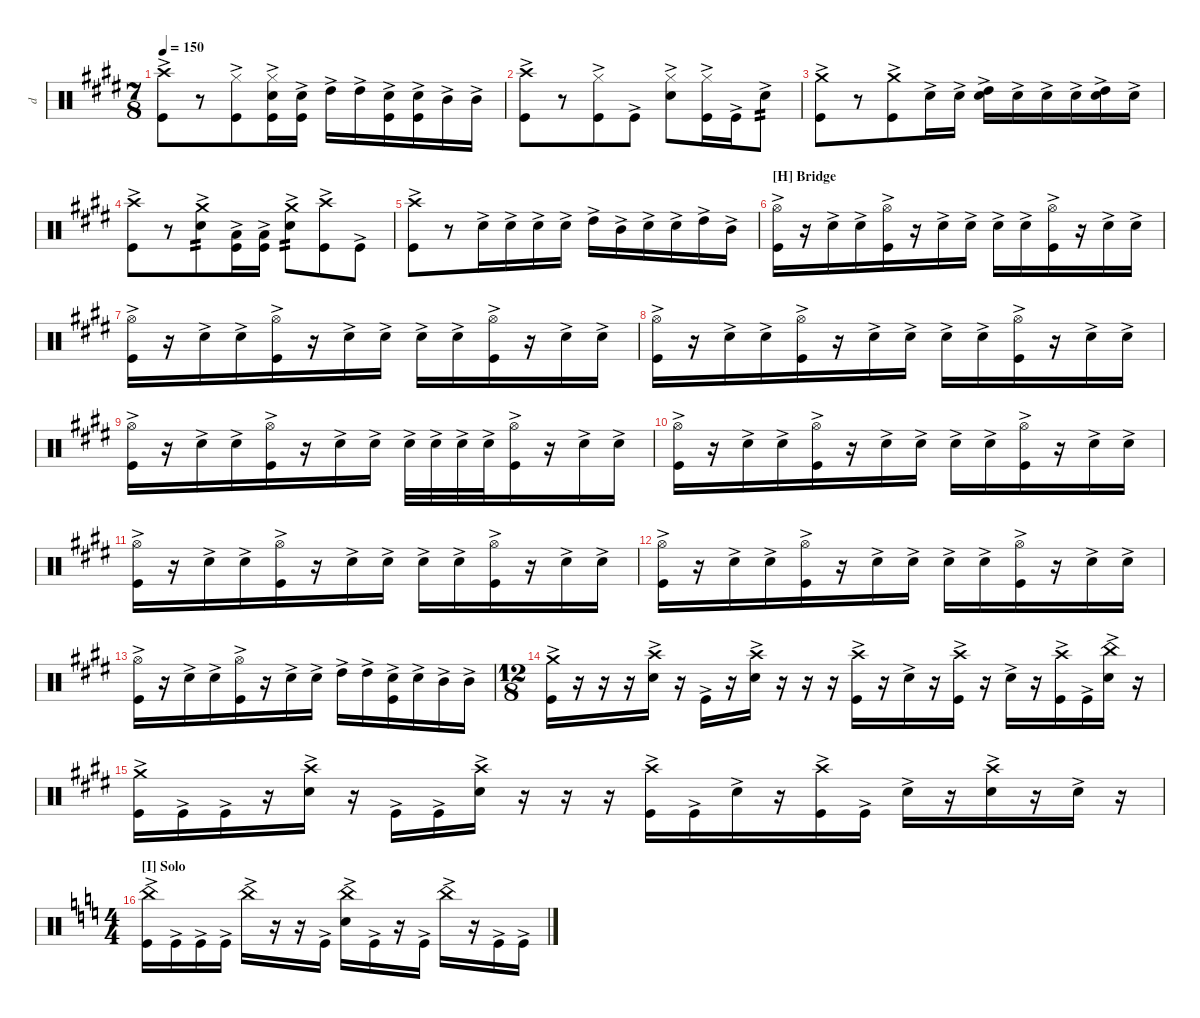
\defaultSystemsLayout 4
\hideDynamics
\bracketExtendMode nobrackets
\otherSystemsTrackNameOrientation horizontal
\track ("Drumkit" "d") {instrument percussion}
\staff {score}
\articulation defaults
\ts (7 8)
\tempo 150
\clef neutral
\ks c#minor
("Crash high (hit)"{ac acc forcenatural} "Kick (hit)"{ac acc forcenatural}).8{dy mf beam Down} r.8{beam Down} ("Hi-Hat (closed)"{ac acc forcenatural} "Kick (hit)"{ac acc forcenatural}).8{beam Down} ("Hi-Hat (closed)"{ac acc forcenatural} "Snare (hit) 2"{ac acc forcenatural} "Kick (hit)"{ac acc forcenatural}).16{beam Down} ("Snare (hit) 2"{ac acc forcenatural} "Kick (hit)"{ac acc forcenatural}).16{beam Down} "High Tom (hit)"{ac acc forcenatural}.16{beam Down} "High Tom (hit)"{ac acc forcenatural}.16{beam Down} ("Snare (hit) 2"{ac acc forcenatural} "Kick (hit)"{ac acc forcenatural}).16{beam Up} ("Snare (hit) 2"{ac acc forcenatural} "Kick (hit)"{ac acc forcenatural}).16{beam Up} "Mid Tom (hit)"{ac acc forcenatural}.16{beam Up} "Mid Tom (hit)"{ac acc forcenatural}.16{beam Up} |
("Crash high (hit)"{ac acc forcenatural} "Kick (hit)"{ac acc forcenatural}).8{beam Down} r.8{beam Down} ("Hi-Hat (closed)"{ac acc forcenatural} "Kick (hit)"{ac acc forcenatural}).8{beam Down} "Kick (hit)"{ac acc forcenatural}.8{beam Down} ("Hi-Hat (closed)"{ac acc forcenatural} "Snare (hit) 2"{ac acc forcenatural}).8{beam Down} ("Hi-Hat (closed)"{ac acc forcenatural} "Kick (hit)"{ac acc forcenatural}).16{beam Down} "Kick (hit)"{ac acc forcenatural}.16{beam Down} "Snare (hit) 2"{ac acc forcenatural}.8{tp 2 beam Down} |
("Crash medium (hit)"{ac acc forcenatural} "Kick (hit)"{ac acc forcenatural}).8{beam Down} r.8{beam Down} ("Crash medium (hit)"{ac acc forcenatural} "Kick (hit)"{ac acc forcenatural}).8{beam Down} "Snare (hit) 2"{ac acc forcenatural}.16{beam Down} "Snare (hit) 2"{ac acc forcenatural}.16{beam Down} ("High Tom (hit)"{ac acc forcenatural} "Snare (hit) 2"{ac acc forcenatural}).16{beam Down} "Snare (hit) 2"{ac acc forcenatural}.16{beam Down} "Snare (hit) 2"{ac acc forcenatural}.16{beam Down} "Snare (hit) 2"{ac acc forcenatural}.16{beam Down} ("High Tom (hit)"{ac acc forcenatural} "Snare (hit) 2"{ac acc forcenatural}).16{beam Down} "Snare (hit) 2"{ac acc forcenatural}.16{beam Down} |
("Crash high (hit)"{ac acc forcenatural} "Kick (hit)"{ac acc forcenatural}).8{beam Down} r.8{beam Down} ("Crash medium (hit)"{ac acc forcenatural} "Snare (hit) 2"{ac acc forcenatural}).8{tp 2 beam Down} ("Low Floor Tom (hit)"{ac acc forcenatural} "Kick (hit)"{ac acc forcenatural}).16{beam Down} ("Low Floor Tom (hit)"{ac acc forcenatural} "Kick (hit)"{ac acc forcenatural}).16{beam Down} ("Crash medium (hit)"{ac acc forcenatural} "Snare (hit) 2"{ac acc forcenatural}).8{tp 2 beam Down} ("Crash high (hit)"{ac acc forcenatural} "Kick (hit)"{ac acc forcenatural}).8{beam Down} "Kick (hit)"{ac acc forcenatural}.8{beam Down} |
("Crash high (hit)"{ac acc forcenatural} "Kick (hit)"{ac acc forcenatural}).8{beam Down} r.8{beam Down} "Snare (hit) 2"{ac acc forcenatural}.16{beam Down} "Snare (hit) 2"{ac acc forcenatural}.16{beam Down} "Snare (hit) 2"{ac acc forcenatural}.16{beam Down} "Snare (hit) 2"{ac acc forcenatural}.16{beam Down} "High Tom (hit)"{ac acc forcenatural}.16{beam Down} "Mid Tom (hit)"{ac acc forcenatural}.16{beam Down} "Snare (hit) 2"{ac acc forcenatural}.16{beam Down} "Snare (hit) 2"{ac acc forcenatural}.16{beam Down} "High Tom (hit)"{ac acc forcenatural}.16{beam Down} "Mid Tom (hit)"{ac acc forcenatural}.16{beam Down} |
\section ("H" "Bridge")
("Hi-Hat (open)"{ac acc forcenatural} "Kick (hit)"{ac acc forcenatural}).16{beam Down} r.16{beam Down} "Snare (hit) 2"{ac acc forcenatural}.16{beam Down} "Snare (hit) 2"{ac acc forcenatural}.16{beam Down} ("Hi-Hat (open)"{ac acc forcenatural} "Kick (hit)"{ac acc forcenatural}).16{beam Down} r.16{beam Down} "Snare (hit) 2"{ac acc forcenatural}.16{beam Down} "Snare (hit) 2"{ac acc forcenatural}.16{beam Down} "Snare (hit) 2"{ac acc forcenatural}.16{beam Down} "Snare (hit) 2"{ac acc forcenatural}.16{beam Down} ("Hi-Hat (open)"{ac acc forcenatural} "Kick (hit)"{ac acc forcenatural}).16{beam Down} r.16{beam Down} "Snare (hit) 2"{ac acc forcenatural}.16{beam Down} "Snare (hit) 2"{ac acc forcenatural}.16{beam Down} |
("Hi-Hat (open)"{ac acc forcenatural} "Kick (hit)"{ac acc forcenatural}).16{beam Down} r.16{beam Down} "Snare (hit) 2"{ac acc forcenatural}.16{beam Down} "Snare (hit) 2"{ac acc forcenatural}.16{beam Down} ("Hi-Hat (open)"{ac acc forcenatural} "Kick (hit)"{ac acc forcenatural}).16{beam Down} r.16{beam Down} "Snare (hit) 2"{ac acc forcenatural}.16{beam Down} "Snare (hit) 2"{ac acc forcenatural}.16{beam Down} "Snare (hit) 2"{ac acc forcenatural}.16{beam Down} "Snare (hit) 2"{ac acc forcenatural}.16{beam Down} ("Hi-Hat (open)"{ac acc forcenatural} "Kick (hit)"{ac acc forcenatural}).16{beam Down} r.16{beam Down} "Snare (hit) 2"{ac acc forcenatural}.16{beam Down} "Snare (hit) 2"{ac acc forcenatural}.16{beam Down} |
("Hi-Hat (open)"{ac acc forcenatural} "Kick (hit)"{ac acc forcenatural}).16{beam Down} r.16{beam Down} "Snare (hit) 2"{ac acc forcenatural}.16{beam Down} "Snare (hit) 2"{ac acc forcenatural}.16{beam Down} ("Hi-Hat (open)"{ac acc forcenatural} "Kick (hit)"{ac acc forcenatural}).16{beam Down} r.16{beam Down} "Snare (hit) 2"{ac acc forcenatural}.16{beam Down} "Snare (hit) 2"{ac acc forcenatural}.16{beam Down} "Snare (hit) 2"{ac acc forcenatural}.16{beam Down} "Snare (hit) 2"{ac acc forcenatural}.16{beam Down} ("Hi-Hat (open)"{ac acc forcenatural} "Kick (hit)"{ac acc forcenatural}).16{beam Down} r.16{beam Down} "Snare (hit) 2"{ac acc forcenatural}.16{beam Down} "Snare (hit) 2"{ac acc forcenatural}.16{beam Down} |
("Hi-Hat (open)"{ac acc forcenatural} "Kick (hit)"{ac acc forcenatural}).16{beam Down} r.16{beam Down} "Snare (hit) 2"{ac acc forcenatural}.16{beam Down} "Snare (hit) 2"{ac acc forcenatural}.16{beam Down} ("Hi-Hat (open)"{ac acc forcenatural} "Kick (hit)"{ac acc forcenatural}).16{beam Down} r.16{beam Down} "Snare (hit) 2"{ac acc forcenatural}.16{beam Down} "Snare (hit) 2"{ac acc forcenatural}.16{beam Down} "Snare (hit) 2"{ac acc forcenatural}.32{beam Down} "Snare (hit) 2"{ac acc forcenatural}.32{beam Down} "Snare (hit) 2"{ac acc forcenatural}.32{beam Down} "Snare (hit) 2"{ac acc forcenatural}.32{beam Down} ("Hi-Hat (open)"{ac acc forcenatural} "Kick (hit)"{ac acc forcenatural}).16{beam Down} r.16{beam Down} "Snare (hit) 2"{ac acc forcenatural}.16{beam Down} "Snare (hit) 2"{ac acc forcenatural}.16{beam Down} |
("Hi-Hat (open)"{ac acc forcenatural} "Kick (hit)"{ac acc forcenatural}).16{beam Down} r.16{beam Down} "Snare (hit) 2"{ac acc forcenatural}.16{beam Down} "Snare (hit) 2"{ac acc forcenatural}.16{beam Down} ("Hi-Hat (open)"{ac acc forcenatural} "Kick (hit)"{ac acc forcenatural}).16{beam Down} r.16{beam Down} "Snare (hit) 2"{ac acc forcenatural}.16{beam Down} "Snare (hit) 2"{ac acc forcenatural}.16{beam Down} "Snare (hit) 2"{ac acc forcenatural}.16{beam Down} "Snare (hit) 2"{ac acc forcenatural}.16{beam Down} ("Hi-Hat (open)"{ac acc forcenatural} "Kick (hit)"{ac acc forcenatural}).16{beam Down} r.16{beam Down} "Snare (hit) 2"{ac acc forcenatural}.16{beam Down} "Snare (hit) 2"{ac acc forcenatural}.16{beam Down} |
("Hi-Hat (open)"{ac acc forcenatural} "Kick (hit)"{ac acc forcenatural}).16{beam Down} r.16{beam Down} "Snare (hit) 2"{ac acc forcenatural}.16{beam Down} "Snare (hit) 2"{ac acc forcenatural}.16{beam Down} ("Hi-Hat (open)"{ac acc forcenatural} "Kick (hit)"{ac acc forcenatural}).16{beam Down} r.16{beam Down} "Snare (hit) 2"{ac acc forcenatural}.16{beam Down} "Snare (hit) 2"{ac acc forcenatural}.16{beam Down} "Snare (hit) 2"{ac acc forcenatural}.16{beam Down} "Snare (hit) 2"{ac acc forcenatural}.16{beam Down} ("Hi-Hat (open)"{ac acc forcenatural} "Kick (hit)"{ac acc forcenatural}).16{beam Down} r.16{beam Down} "Snare (hit) 2"{ac acc forcenatural}.16{beam Down} "Snare (hit) 2"{ac acc forcenatural}.16{beam Down} |
("Hi-Hat (open)"{ac acc forcenatural} "Kick (hit)"{ac acc forcenatural}).16{beam Down} r.16{beam Down} "Snare (hit) 2"{ac acc forcenatural}.16{beam Down} "Snare (hit) 2"{ac acc forcenatural}.16{beam Down} ("Hi-Hat (open)"{ac acc forcenatural} "Kick (hit)"{ac acc forcenatural}).16{beam Down} r.16{beam Down} "Snare (hit) 2"{ac acc forcenatural}.16{beam Down} "Snare (hit) 2"{ac acc forcenatural}.16{beam Down} "Snare (hit) 2"{ac acc forcenatural}.16{beam Down} "Snare (hit) 2"{ac acc forcenatural}.16{beam Down} ("Hi-Hat (open)"{ac acc forcenatural} "Kick (hit)"{ac acc forcenatural}).16{beam Down} r.16{beam Down} "Snare (hit) 2"{ac acc forcenatural}.16{beam Down} "Snare (hit) 2"{ac acc forcenatural}.16{beam Down} |
("Hi-Hat (open)"{ac acc forcenatural} "Kick (hit)"{ac acc forcenatural}).16{beam Down} r.16{beam Down} "Snare (hit) 2"{ac acc forcenatural}.16{beam Down} "Snare (hit) 2"{ac acc forcenatural}.16{beam Down} ("Hi-Hat (open)"{ac acc forcenatural} "Kick (hit)"{ac acc forcenatural}).16{beam Down} r.16{beam Down} "Snare (hit) 2"{ac acc forcenatural}.16{beam Down} "Snare (hit) 2"{ac acc forcenatural}.16{beam Down} "High Tom (hit)"{ac acc forcenatural}.16{beam Down} "High Tom (hit)"{ac acc forcenatural}.16{beam Down} ("Snare (hit) 2"{ac acc forcenatural} "Kick (hit)"{ac acc forcenatural}).16{beam Up} "Snare (hit) 2"{ac acc forcenatural}.16{beam Up} "Mid Tom (hit)"{ac acc forcenatural}.16{beam Up} "Mid Tom (hit)"{ac acc forcenatural}.16{beam Up} |
\ts (12 8)
\beaming (8 3 3 3 3)
("Crash medium (hit)"{ac acc forcenatural} "Kick (hit)"{ac acc forcenatural}).16{beam Down} r.16{beam Down} r.16{beam Down} r.16{beam Down} ("Crash high (hit)"{ac acc forcenatural} "Snare (hit) 2"{ac acc forcenatural}).16{beam Down} r.16{beam Down} "Kick (hit)"{ac acc forcenatural}.16{beam Down} r.16{beam Down} ("Crash high (hit)"{ac acc forcenatural} "Snare (hit) 2"{ac acc forcenatural}).16{beam Down} r.16{beam Down} r.16{beam Down} r.16{beam Down} ("Crash high (hit)"{ac acc forcenatural} "Kick (hit)"{ac acc forcenatural}).16{beam Down} r.16{beam Down} "Snare (hit) 2"{ac acc forcenatural}.16{beam Down} r.16{beam Down} ("Crash high (hit)"{ac acc forcenatural} "Kick (hit)"{ac acc forcenatural}).16{beam Down} r.16{beam Down} "Snare (hit) 2"{ac acc forcenatural}.16{beam Down} r.16{beam Down} ("Crash high (hit)"{ac acc forcenatural} "Kick (hit)"{ac acc forcenatural}).16{beam Down} "Kick (hit)"{ac acc forcenatural}.16{beam Down} ("China (hit)"{ac acc forcenatural} "Snare (hit) 2"{ac acc forcenatural}).16{beam Down} r.16{beam Down} |
("Crash medium (hit)"{ac acc forcenatural} "Kick (hit)"{ac acc forcenatural}).16{beam Down} "Kick (hit)"{ac acc forcenatural}.16{beam Down} "Kick (hit)"{ac acc forcenatural}.16{beam Down} r.16{beam Down} ("Crash high (hit)"{ac acc forcenatural} "Snare (hit) 2"{ac acc forcenatural}).16{beam Down} r.16{beam Down} "Kick (hit)"{ac acc forcenatural}.16{beam Down} "Kick (hit)"{ac acc forcenatural}.16{beam Down} ("Crash high (hit)"{ac acc forcenatural} "Snare (hit) 2"{ac acc forcenatural}).16{beam Down} r.16{beam Down} r.16{beam Down} r.16{beam Down} ("Crash high (hit)"{ac acc forcenatural} "Kick (hit)"{ac acc forcenatural}).16{beam Down} "Kick (hit)"{ac acc forcenatural}.16{beam Down} "Snare (hit) 2"{ac acc forcenatural}.16{beam Down} r.16{beam Down} ("Crash high (hit)"{ac acc forcenatural} "Kick (hit)"{ac acc forcenatural}).16{beam Down} "Kick (hit)"{ac acc forcenatural}.16{beam Down} "Snare (hit) 2"{ac acc forcenatural}.16{beam Down} r.16{beam Down} ("Crash high (hit)"{ac acc forcenatural} "Snare (hit) 2"{ac acc forcenatural}).16{beam Down} r.16{beam Down} "Snare (hit) 2"{ac acc forcenatural}.16{beam Down} r.16{beam Down} |
\ts (4 4)
\beaming (8 2 2 2 2)
\section ("I" "Solo")
\ks c
("China (hit)"{ac} "Kick (hit)"{ac}).16{beam Down} "Kick (hit)"{ac}.16{beam Down} "Kick (hit)"{ac}.16{beam Down} "Kick (hit)"{ac}.16{beam Down} "China (hit)"{ac}.16{beam Down} r.16{beam Down} r.16{beam Down} "Kick (hit)"{ac}.16{beam Down} ("China (hit)"{ac} "Snare (hit) 2"{ac}).16{beam Down} "Kick (hit)"{ac}.16{beam Down} r.16{beam Down} "Kick (hit)"{ac}.16{beam Down} "China (hit)"{ac}.16{beam Down} r.16{beam Down} "Kick (hit)"{ac}.16{beam Down} "Kick (hit)"{ac}.16{beam Down}
